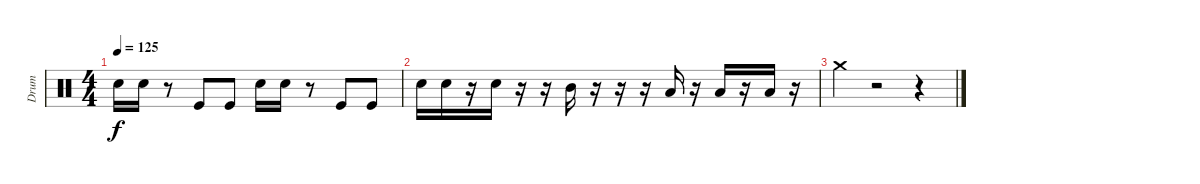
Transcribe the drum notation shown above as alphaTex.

\track ("Drum" "Drum") {instrument percussion}
\staff {score}
\articulation defaults
\ts (4 4)
\tempo 125
\clef neutral
\ks c "Electric Snare (hit)".16{dy f} "Electric Snare (hit)".16
r.8 "Kick (hit)".8 "Kick (hit)".8 "Electric Snare (hit)".16 "Electric Snare (hit)".16 r.8 "Kick (hit)".8 "Kick (hit)".8 |
"Electric Snare (hit)".16 "Electric Snare (hit)".16 r.16 "Electric Snare (hit)".16 r.16 r.16 "Mid Tom (hit)".16 r.16 r.16 r.16 "Low Tom (hit)".16 r.16 "Low Floor Tom (hit)".16 r.16 "Low Floor Tom (hit)".16 r.16 |
"Crash medium (hit)".4 r.2 r.4
